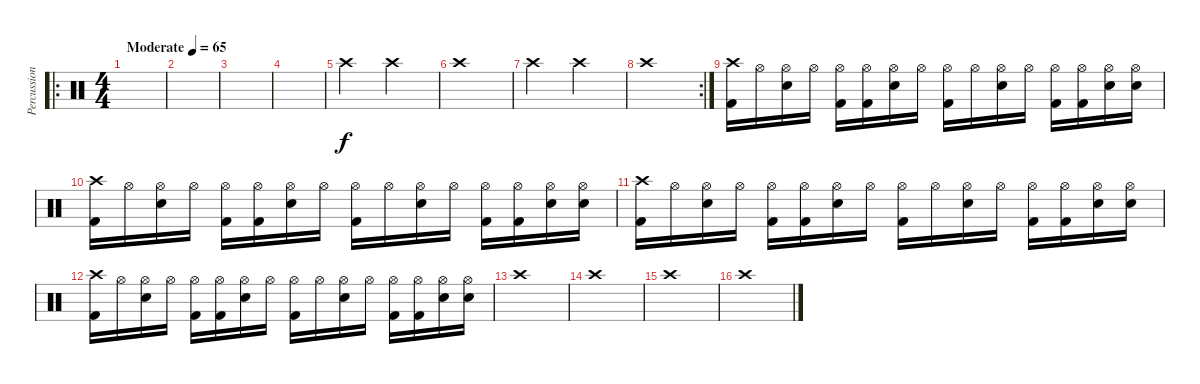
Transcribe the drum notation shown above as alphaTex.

\track ("Percussion" "Percussion") {instrument percussion}
\staff {score}
\articulation defaults
\ro
\ts (4 4)
\tempo (65 "Moderate")
\clef neutral
\ks c
|
|
|
|
"Crash high (hit)".2 "Crash high (hit)".2 |
"Crash high (hit)".1 |
"Crash high (hit)".2 "Crash high (hit)".2 |
\rc 2 "Crash high (hit)".1
|
("Crash high (hit)" "Kick (hit) 2").16 "Hi-Hat (open)".16 ("Hi-Hat (open)" "Snare (hit) 2").16 "Hi-Hat (open)".16 ("Hi-Hat (open)" "Kick (hit) 2").16 ("Hi-Hat (open)" "Kick (hit) 2").16 ("Hi-Hat (open)" "Snare (hit) 2").16 "Hi-Hat (open)".16 ("Hi-Hat (open)" "Kick (hit) 2").16 "Hi-Hat (open)".16 ("Hi-Hat (open)" "Snare (hit) 2").16 "Hi-Hat (open)".16 ("Hi-Hat (open)" "Kick (hit) 2").16 ("Hi-Hat (open)" "Kick (hit) 2").16 ("Hi-Hat (open)" "Snare (hit) 2").16 ("Hi-Hat (open)" "Snare (hit) 2").16 |
("Crash high (hit)" "Kick (hit) 2").16 "Hi-Hat (open)".16 ("Hi-Hat (open)" "Snare (hit) 2").16 "Hi-Hat (open)".16 ("Hi-Hat (open)" "Kick (hit) 2").16 ("Hi-Hat (open)" "Kick (hit) 2").16 ("Hi-Hat (open)" "Snare (hit) 2").16 "Hi-Hat (open)".16 ("Hi-Hat (open)" "Kick (hit) 2").16 "Hi-Hat (open)".16 ("Hi-Hat (open)" "Snare (hit) 2").16 "Hi-Hat (open)".16 ("Hi-Hat (open)" "Kick (hit) 2").16 ("Hi-Hat (open)" "Kick (hit) 2").16 ("Hi-Hat (open)" "Snare (hit) 2").16 ("Hi-Hat (open)" "Snare (hit) 2").16 |
("Crash high (hit)" "Kick (hit) 2").16 "Hi-Hat (open)".16 ("Hi-Hat (open)" "Snare (hit) 2").16 "Hi-Hat (open)".16 ("Hi-Hat (open)" "Kick (hit) 2").16 ("Hi-Hat (open)" "Kick (hit) 2").16 ("Hi-Hat (open)" "Snare (hit) 2").16 "Hi-Hat (open)".16 ("Hi-Hat (open)" "Kick (hit) 2").16 "Hi-Hat (open)".16 ("Hi-Hat (open)" "Snare (hit) 2").16 "Hi-Hat (open)".16 ("Hi-Hat (open)" "Kick (hit) 2").16 ("Hi-Hat (open)" "Kick (hit) 2").16 ("Hi-Hat (open)" "Snare (hit) 2").16 ("Hi-Hat (open)" "Snare (hit) 2").16 |
("Crash high (hit)" "Kick (hit) 2").16 "Hi-Hat (open)".16 ("Hi-Hat (open)" "Snare (hit) 2").16 "Hi-Hat (open)".16 ("Hi-Hat (open)" "Kick (hit) 2").16 ("Hi-Hat (open)" "Kick (hit) 2").16 ("Hi-Hat (open)" "Snare (hit) 2").16 "Hi-Hat (open)".16 ("Hi-Hat (open)" "Kick (hit) 2").16 "Hi-Hat (open)".16 ("Hi-Hat (open)" "Snare (hit) 2").16 "Hi-Hat (open)".16 ("Hi-Hat (open)" "Kick (hit) 2").16 ("Hi-Hat (open)" "Kick (hit) 2").16 ("Hi-Hat (open)" "Snare (hit) 2").16 ("Hi-Hat (open)" "Snare (hit) 2").16 |
"Crash high (hit)".1 |
"Crash high (hit)".1 |
"Crash high (hit)".1 |
"Crash high (hit)".1
